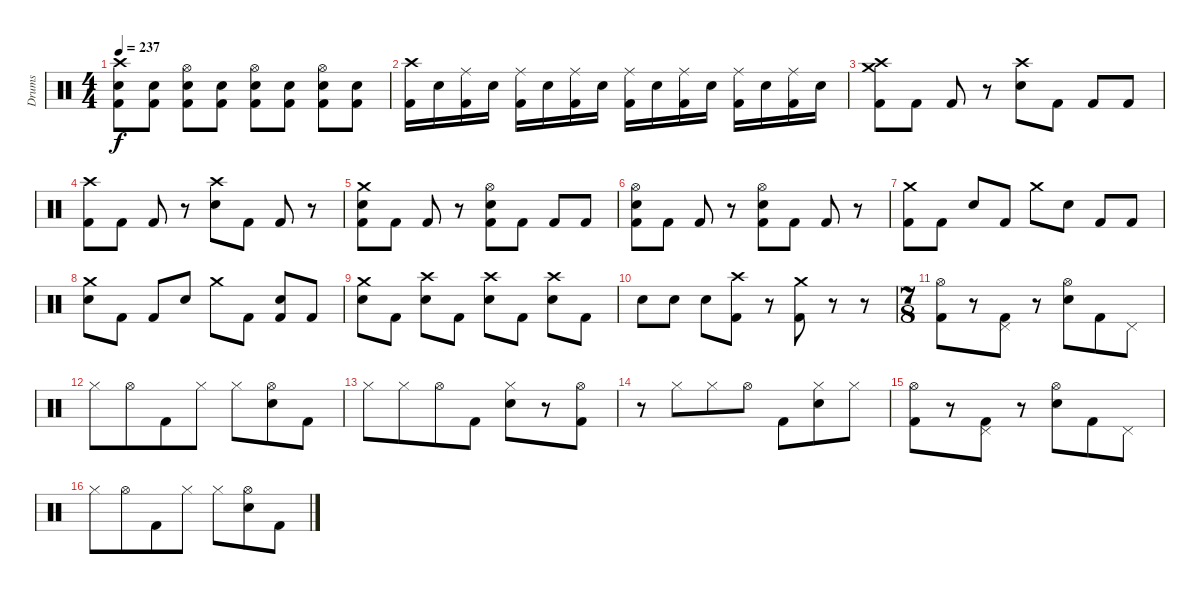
\track ("Drums" "Drums") {instrument percussion}
\staff {score}
\articulation defaults
\ts (4 4)
\tempo 237
\clef neutral
\ks c
("Crash high (hit)" "Electric Snare (hit)" "Kick (hit) 2").8{dy f} ("Electric Snare (hit)" "Kick (hit) 2").8 ("Hi-Hat (open)" "Electric Snare (hit)" "Kick (hit) 2").8 ("Electric Snare (hit)" "Kick (hit) 2").8 ("Hi-Hat (open)" "Electric Snare (hit)" "Kick (hit) 2").8 ("Electric Snare (hit)" "Kick (hit) 2").8 ("Hi-Hat (open)" "Electric Snare (hit)" "Kick (hit) 2").8 ("Electric Snare (hit)" "Kick (hit) 2").8 |
("Crash high (hit)" "Kick (hit) 2").16 "Electric Snare (hit)".16 ("Ride (middle)" "Kick (hit) 2").16 "Electric Snare (hit)".16 ("Ride (middle)" "Kick (hit) 2").16 "Electric Snare (hit)".16 ("Ride (middle)" "Kick (hit) 2").16 "Electric Snare (hit)".16 ("Ride (middle)" "Kick (hit) 2").16 "Electric Snare (hit)".16 ("Ride (middle)" "Kick (hit) 2").16 "Electric Snare (hit)".16 ("Ride (middle)" "Kick (hit) 2").16 "Electric Snare (hit)".16 ("Ride (middle)" "Kick (hit) 2").16 "Electric Snare (hit)".16 |
("Crash medium (hit)" "Crash high (hit)" "Kick (hit) 2").8 "Kick (hit) 2".8 "Kick (hit) 2".8 r.8 ("Crash high (hit)" "Electric Snare (hit)").8 "Kick (hit) 2".8 "Kick (hit) 2".8 "Kick (hit) 2".8 |
("Crash high (hit)" "Kick (hit) 2").8 "Kick (hit) 2".8 "Kick (hit) 2".8 r.8 ("Crash high (hit)" "Electric Snare (hit)").8 "Kick (hit) 2".8 "Kick (hit) 2".8 r.8 |
("Crash medium (hit)" "Electric Snare (hit)" "Kick (hit) 2").8 "Kick (hit) 2".8 "Kick (hit) 2".8 r.8 ("Hi-Hat (open)" "Electric Snare (hit)" "Kick (hit) 2").8 "Kick (hit) 2".8 "Kick (hit) 2".8 "Kick (hit) 2".8 |
("Hi-Hat (open)" "Electric Snare (hit)" "Kick (hit) 2").8 "Kick (hit) 2".8 "Kick (hit) 2".8 r.8 ("Hi-Hat (open)" "Electric Snare (hit)" "Kick (hit) 2").8 "Kick (hit) 2".8 "Kick (hit) 2".8 r.8 |
("Crash medium (hit)" "Kick (hit) 2").8 "Kick (hit) 2".8 "Electric Snare (hit)".8 "Kick (hit) 2".8 "Crash medium (hit)".8 "Electric Snare (hit)".8 "Kick (hit) 2".8 "Kick (hit) 2".8 |
("Crash medium (hit)" "Electric Snare (hit)").8 "Kick (hit) 2".8 "Kick (hit) 2".8 "Electric Snare (hit)".8 "Crash medium (hit)".8 "Kick (hit) 2".8 ("Electric Snare (hit)" "Kick (hit) 2").8 "Kick (hit) 2".8 |
("Crash medium (hit)" "Electric Snare (hit)").8 "Kick (hit) 2".8 ("Crash high (hit)" "Electric Snare (hit)").8 "Kick (hit) 2".8 ("Crash high (hit)" "Electric Snare (hit)").8 "Kick (hit) 2".8 ("Crash high (hit)" "Electric Snare (hit)").8 "Kick (hit) 2".8 |
"Electric Snare (hit)".8 "Electric Snare (hit)".8 "Electric Snare (hit)".8 ("Crash high (hit)" "Kick (hit) 2").8 r.8 ("Crash medium (hit)" "Kick (hit) 2").8 r.8 r.8 |
\ts (7 8)
("Hi-Hat (open)" "Kick (hit) 2").8 r.8 ("Pedal Hi-Hat (hit)" "Kick (hit) 2").8 r.8 ("Hi-Hat (open)" "Electric Snare (hit)").8 "Kick (hit) 2".8 "Pedal Hi-Hat (hit)".8 |
"Hi-Hat (closed)".8 "Hi-Hat (open)".8 "Kick (hit) 2".8 "Hi-Hat (closed)".8 "Hi-Hat (closed)".8 ("Hi-Hat (open)" "Electric Snare (hit)").8 "Kick (hit) 2".8 |
"Hi-Hat (closed)".8 "Hi-Hat (closed)".8 "Hi-Hat (open)".8 "Kick (hit) 2".8 ("Hi-Hat (closed)" "Electric Snare (hit)").8 r.8 ("Hi-Hat (open)" "Kick (hit) 2").8 |
r.8 "Hi-Hat (closed)".8 "Hi-Hat (closed)".8 "Hi-Hat (open)".8 "Kick (hit) 2".8 ("Hi-Hat (closed)" "Electric Snare (hit)").8 "Hi-Hat (closed)".8 |
("Hi-Hat (open)" "Kick (hit) 2").8 r.8 ("Pedal Hi-Hat (hit)" "Kick (hit) 2").8 r.8 ("Hi-Hat (open)" "Electric Snare (hit)").8 "Kick (hit) 2".8 "Pedal Hi-Hat (hit)".8 |
"Hi-Hat (closed)".8 "Hi-Hat (open)".8 "Kick (hit) 2".8 "Hi-Hat (closed)".8 "Hi-Hat (closed)".8 ("Hi-Hat (open)" "Electric Snare (hit)").8 "Kick (hit) 2".8
